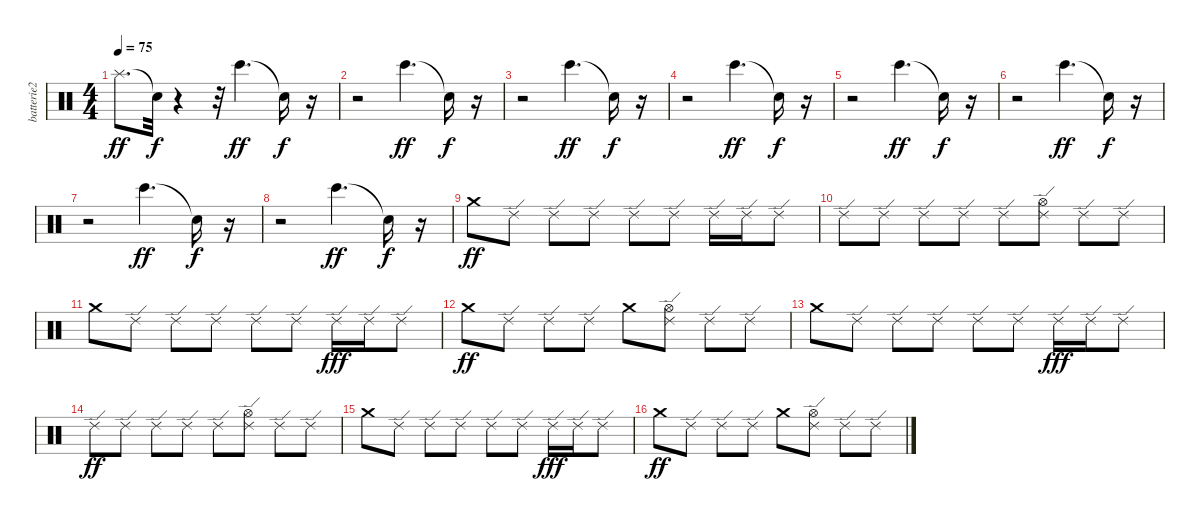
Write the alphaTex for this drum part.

\track ("batterie2" "batterie2") {instrument percussion}
\staff {score}
\articulation defaults
\ts (4 4)
\tempo 75
\clef neutral
\ks c "Splash (hit)".8{d dy ff} "Snare (hit)"{t}.32{dy f}
r.4 r.32 "Bongo High (hit)".4{d dy ff} "Snare (hit)"{t}.16{dy f} r.16 |
r.2 "Bongo High (hit)".4{d dy ff} "Snare (hit)"{t}.16{dy f} r.16 |
r.2 "Bongo High (hit)".4{d dy ff} "Snare (hit)"{t}.16{dy f} r.16 |
r.2 "Bongo High (hit)".4{d dy ff} "Snare (hit)"{t}.16{dy f} r.16 |
r.2 "Bongo High (hit)".4{d dy ff} "Snare (hit)"{t}.16{dy f} r.16 |
r.2 "Bongo High (hit)".4{d dy ff} "Snare (hit)"{t}.16{dy f} r.16 |
r.2 "Bongo High (hit)".4{d dy ff} "Snare (hit)"{t}.16{dy f} r.16 |
r.2 "Bongo High (hit)".4{d dy ff} "Snare (hit)"{t}.16{dy f} r.16 |
"Crash medium (hit)".8{dy ff} "Ride (edge) 2".8 "Ride (edge) 2".8 "Ride (edge) 2".8 "Ride (edge) 2".8 "Ride (edge) 2".8 "Ride (edge) 2".16 "Ride (edge) 2".16 "Ride (edge) 2".8 |
"Ride (edge) 2".8 "Ride (edge) 2".8 "Ride (edge) 2".8 "Ride (edge) 2".8 "Ride (edge) 2".8 ("Hi-Hat (open)" "Ride (edge) 2").8 "Ride (edge) 2".8 "Ride (edge) 2".8 |
"Crash medium (hit)".8 "Ride (edge) 2".8 "Ride (edge) 2".8 "Ride (edge) 2".8 "Ride (edge) 2".8 "Ride (edge) 2".8 "Ride (edge) 2".16{dy fff} "Ride (edge) 2".16 "Ride (edge) 2".8 |
"Crash medium (hit)".8{dy ff} "Ride (edge) 2".8 "Ride (edge) 2".8 "Ride (edge) 2".8 "Crash medium (hit)".8 ("Hi-Hat (open)" "Ride (edge) 2").8 "Ride (edge) 2".8 "Ride (edge) 2".8 |
"Crash medium (hit)".8 "Ride (edge) 2".8 "Ride (edge) 2".8 "Ride (edge) 2".8 "Ride (edge) 2".8 "Ride (edge) 2".8 "Ride (edge) 2".16{dy fff} "Ride (edge) 2".16 "Ride (edge) 2".8 |
"Ride (edge) 2".8{dy ff} "Ride (edge) 2".8 "Ride (edge) 2".8 "Ride (edge) 2".8 "Ride (edge) 2".8 ("Hi-Hat (open)" "Ride (edge) 2").8 "Ride (edge) 2".8 "Ride (edge) 2".8 |
"Crash medium (hit)".8 "Ride (edge) 2".8 "Ride (edge) 2".8 "Ride (edge) 2".8 "Ride (edge) 2".8 "Ride (edge) 2".8 "Ride (edge) 2".16{dy fff} "Ride (edge) 2".16 "Ride (edge) 2".8 |
"Crash medium (hit)".8{dy ff} "Ride (edge) 2".8 "Ride (edge) 2".8 "Ride (edge) 2".8 "Crash medium (hit)".8 ("Hi-Hat (open)" "Ride (edge) 2").8 "Ride (edge) 2".8 "Ride (edge) 2".8
